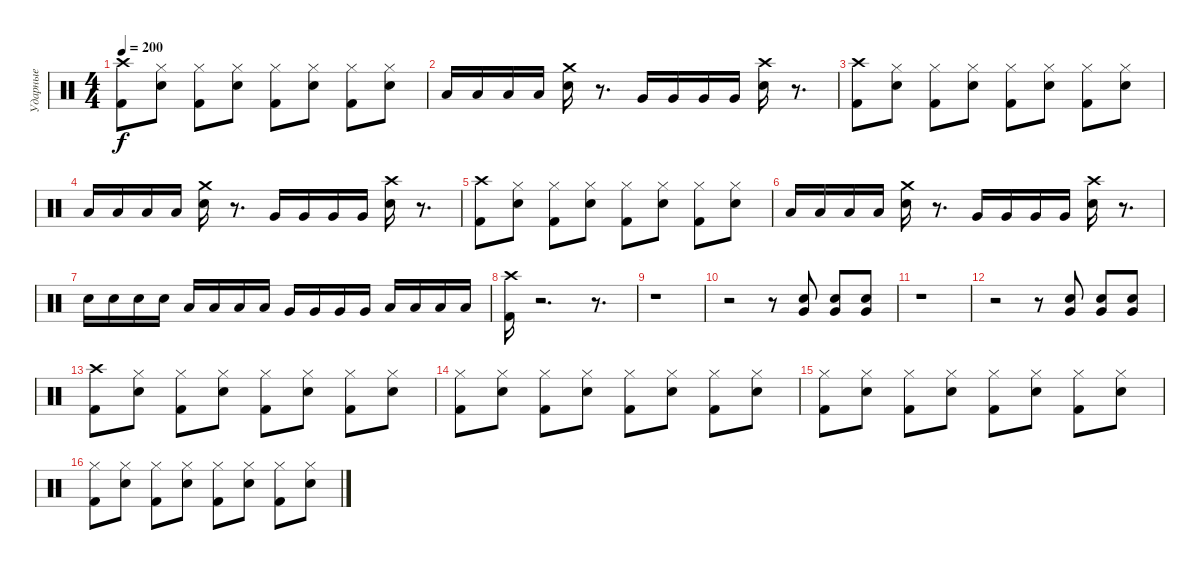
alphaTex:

\track ("Ударные" "Ударные") {instrument percussion}
\staff {score}
\articulation defaults
\ts (4 4)
\tempo 200
\clef neutral
\ks c
("Kick (hit) 2" "Crash high (hit)").8{dy f} ("Snare (hit) 2" "Hi-Hat (closed)").8 ("Hi-Hat (closed)" "Kick (hit) 2").8 ("Hi-Hat (closed)" "Snare (hit) 2").8 ("Hi-Hat (closed)" "Kick (hit) 2").8 ("Hi-Hat (closed)" "Snare (hit) 2").8 ("Hi-Hat (closed)" "Kick (hit) 2").8 ("Hi-Hat (closed)" "Snare (hit) 2").8 |
"Low Tom (hit)".16 "Low Tom (hit)".16 "Low Tom (hit)".16 "Low Tom (hit)".16 ("Crash medium (hit)" "Snare (hit) 2").16 r.8{d} "Very Low Tom (hit)".16 "Very Low Tom (hit)".16 "Very Low Tom (hit)".16 "Very Low Tom (hit)".16 ("Crash high (hit)" "Snare (hit) 2").16 r.8{d} |
("Crash high (hit)" "Kick (hit) 2").8 ("Hi-Hat (closed)" "Snare (hit) 2").8 ("Hi-Hat (closed)" "Kick (hit) 2").8 ("Hi-Hat (closed)" "Snare (hit) 2").8 ("Kick (hit) 2" "Hi-Hat (closed)").8 ("Hi-Hat (closed)" "Snare (hit) 2").8 ("Hi-Hat (closed)" "Kick (hit) 2").8 ("Hi-Hat (closed)" "Snare (hit) 2").8 |
"Low Tom (hit)".16 "Low Tom (hit)".16 "Low Tom (hit)".16 "Low Tom (hit)".16 ("Crash medium (hit)" "Snare (hit) 2").16 r.8{d} "Very Low Tom (hit)".16 "Very Low Tom (hit)".16 "Very Low Tom (hit)".16 "Very Low Tom (hit)".16 ("Crash high (hit)" "Snare (hit) 2").16 r.8{d} |
("Crash high (hit)" "Kick (hit) 2").8 ("Hi-Hat (closed)" "Snare (hit) 2").8 ("Hi-Hat (closed)" "Kick (hit) 2").8 ("Hi-Hat (closed)" "Snare (hit) 2").8 ("Hi-Hat (closed)" "Kick (hit) 2").8 ("Hi-Hat (closed)" "Snare (hit) 2").8 ("Kick (hit) 2" "Hi-Hat (closed)").8 ("Snare (hit) 2" "Hi-Hat (closed)").8 |
"Low Tom (hit)".16 "Low Tom (hit)".16 "Low Tom (hit)".16 "Low Tom (hit)".16 ("Crash medium (hit)" "Snare (hit) 2").16 r.8{d} "Very Low Tom (hit)".16 "Very Low Tom (hit)".16 "Very Low Tom (hit)".16 "Very Low Tom (hit)".16 ("Crash high (hit)" "Snare (hit) 2").16 r.8{d} |
"Snare (hit) 2".16 "Snare (hit) 2".16 "Snare (hit) 2".16 "Snare (hit) 2".16 "Low Tom (hit)".16 "Low Tom (hit)".16 "Low Tom (hit)".16 "Low Tom (hit)".16 "Very Low Tom (hit)".16 "Very Low Tom (hit)".16 "Very Low Tom (hit)".16 "Very Low Tom (hit)".16 "Low Floor Tom (hit)".16 "Low Floor Tom (hit)".16 "Low Floor Tom (hit)".16 "Low Floor Tom (hit)".16 |
("Kick (hit) 2" "Crash high (hit)").16 r.2{d} r.8{d} |
r.1 |
r.2 r.8 ("Very Low Tom (hit)" "Snare (hit) 2").8 ("Snare (hit) 2" "Very Low Tom (hit)").8 ("Snare (hit) 2" "Very Low Tom (hit)").8 |
r.1 |
r.2 r.8 ("Very Low Tom (hit)" "Snare (hit) 2").8 ("Very Low Tom (hit)" "Snare (hit) 2").8 ("Very Low Tom (hit)" "Snare (hit) 2").8 |
("Crash high (hit)" "Kick (hit) 2").8 ("Hi-Hat (closed)" "Snare (hit) 2").8 ("Hi-Hat (closed)" "Kick (hit) 2").8 ("Hi-Hat (closed)" "Snare (hit) 2").8 ("Hi-Hat (closed)" "Kick (hit) 2").8 ("Hi-Hat (closed)" "Snare (hit) 2").8 ("Hi-Hat (closed)" "Kick (hit) 2").8 ("Hi-Hat (closed)" "Snare (hit) 2").8 |
("Hi-Hat (closed)" "Kick (hit) 2").8 ("Hi-Hat (closed)" "Snare (hit) 2").8 ("Hi-Hat (closed)" "Kick (hit) 2").8 ("Hi-Hat (closed)" "Snare (hit) 2").8 ("Hi-Hat (closed)" "Kick (hit) 2").8 ("Hi-Hat (closed)" "Snare (hit) 2").8 ("Hi-Hat (closed)" "Kick (hit) 2").8 ("Hi-Hat (closed)" "Snare (hit) 2").8 |
("Hi-Hat (closed)" "Kick (hit) 2").8 ("Hi-Hat (closed)" "Snare (hit) 2").8 ("Hi-Hat (closed)" "Kick (hit) 2").8 ("Hi-Hat (closed)" "Snare (hit) 2").8 ("Hi-Hat (closed)" "Kick (hit) 2").8 ("Hi-Hat (closed)" "Snare (hit) 2").8 ("Hi-Hat (closed)" "Kick (hit) 2").8 ("Hi-Hat (closed)" "Snare (hit) 2").8 |
("Hi-Hat (closed)" "Kick (hit) 2").8 ("Hi-Hat (closed)" "Snare (hit) 2").8 ("Hi-Hat (closed)" "Kick (hit) 2").8 ("Hi-Hat (closed)" "Snare (hit) 2").8 ("Hi-Hat (closed)" "Kick (hit) 2").8 ("Hi-Hat (closed)" "Snare (hit) 2").8 ("Hi-Hat (closed)" "Kick (hit) 2").8 ("Hi-Hat (closed)" "Snare (hit) 2").8
